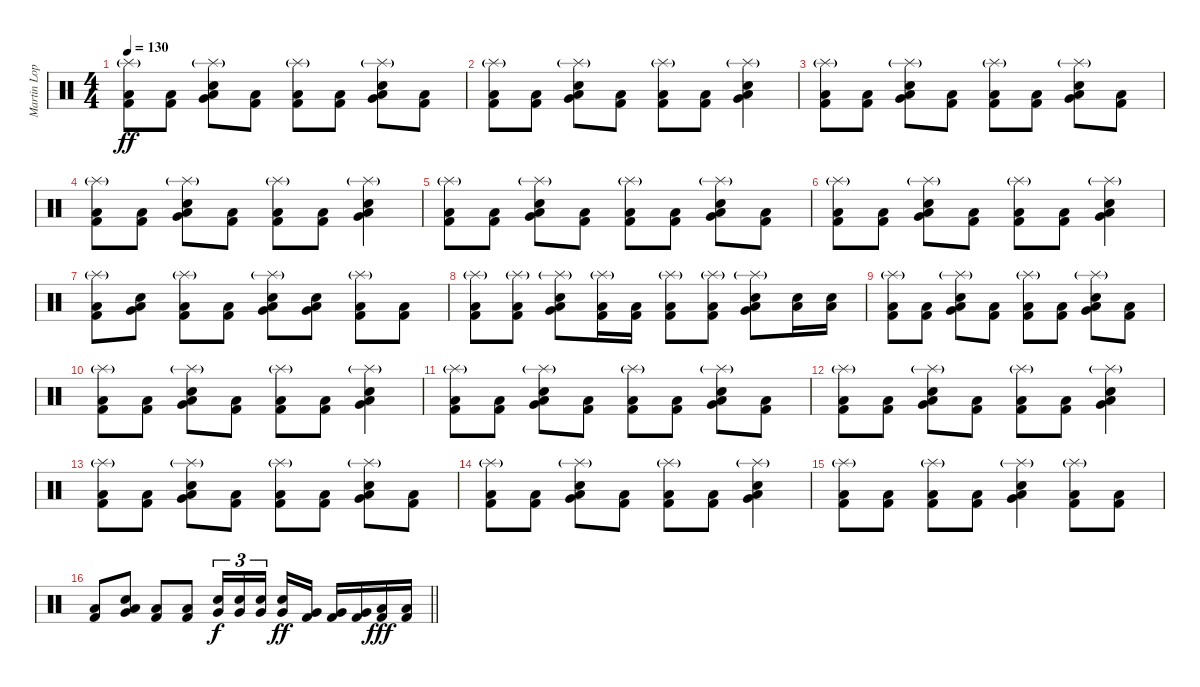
\track ("Martin Lopez" "Martin Lop") {instrument percussion}
\staff {score}
\articulation defaults
\ts (4 4)
\tempo 130
\clef neutral
\ks c
("Splash (hit)"{g} "Kick (hit) 2" "Low Floor Tom (hit)").8{dy ff} ("Kick (hit) 2" "Low Floor Tom (hit)").8 ("Splash (hit)"{g} "Very Low Tom (hit)" "Snare (hit) 2" "Low Floor Tom (hit)").8 ("Kick (hit) 2" "Low Floor Tom (hit)").8 ("Splash (hit)"{g} "Kick (hit) 2" "Low Floor Tom (hit)").8 ("Kick (hit) 2" "Low Floor Tom (hit)").8 ("Splash (hit)"{g} "Very Low Tom (hit)" "Snare (hit) 2" "Low Floor Tom (hit)").8 ("Kick (hit) 2" "Low Floor Tom (hit)").8 |
("Splash (hit)"{g} "Kick (hit) 2" "Low Floor Tom (hit)").8 ("Kick (hit) 2" "Low Floor Tom (hit)").8 ("Splash (hit)"{g} "Very Low Tom (hit)" "Snare (hit) 2" "Low Floor Tom (hit)").8 ("Kick (hit) 2" "Low Floor Tom (hit)").8 ("Splash (hit)"{g} "Kick (hit) 2" "Low Floor Tom (hit)").8 ("Kick (hit) 2" "Low Floor Tom (hit)").8 ("Splash (hit)"{g} "Very Low Tom (hit)" "Snare (hit) 2" "Low Floor Tom (hit)").4 |
("Splash (hit)"{g} "Kick (hit) 2" "Low Floor Tom (hit)").8 ("Kick (hit) 2" "Low Floor Tom (hit)").8 ("Splash (hit)"{g} "Very Low Tom (hit)" "Snare (hit) 2" "Low Floor Tom (hit)").8 ("Kick (hit) 2" "Low Floor Tom (hit)").8 ("Splash (hit)"{g} "Kick (hit) 2" "Low Floor Tom (hit)").8 ("Kick (hit) 2" "Low Floor Tom (hit)").8 ("Splash (hit)"{g} "Very Low Tom (hit)" "Snare (hit) 2" "Low Floor Tom (hit)").8 ("Kick (hit) 2" "Low Floor Tom (hit)").8 |
("Splash (hit)"{g} "Kick (hit) 2" "Low Floor Tom (hit)").8 ("Kick (hit) 2" "Low Floor Tom (hit)").8 ("Splash (hit)"{g} "Very Low Tom (hit)" "Snare (hit) 2" "Low Floor Tom (hit)").8 ("Kick (hit) 2" "Low Floor Tom (hit)").8 ("Splash (hit)"{g} "Kick (hit) 2" "Low Floor Tom (hit)").8 ("Kick (hit) 2" "Low Floor Tom (hit)").8 ("Splash (hit)"{g} "Very Low Tom (hit)" "Snare (hit) 2" "Low Floor Tom (hit)").4 |
("Splash (hit)"{g} "Kick (hit) 2" "Low Floor Tom (hit)").8 ("Kick (hit) 2" "Low Floor Tom (hit)").8 ("Splash (hit)"{g} "Very Low Tom (hit)" "Snare (hit) 2" "Low Floor Tom (hit)").8 ("Kick (hit) 2" "Low Floor Tom (hit)").8 ("Splash (hit)"{g} "Kick (hit) 2" "Low Floor Tom (hit)").8 ("Kick (hit) 2" "Low Floor Tom (hit)").8 ("Splash (hit)"{g} "Very Low Tom (hit)" "Snare (hit) 2" "Low Floor Tom (hit)").8 ("Kick (hit) 2" "Low Floor Tom (hit)").8 |
("Splash (hit)"{g} "Kick (hit) 2" "Low Floor Tom (hit)").8 ("Kick (hit) 2" "Low Floor Tom (hit)").8 ("Splash (hit)"{g} "Very Low Tom (hit)" "Snare (hit) 2" "Low Floor Tom (hit)").8 ("Kick (hit) 2" "Low Floor Tom (hit)").8 ("Splash (hit)"{g} "Kick (hit) 2" "Low Floor Tom (hit)").8 ("Kick (hit) 2" "Low Floor Tom (hit)").8 ("Splash (hit)"{g} "Very Low Tom (hit)" "Snare (hit) 2" "Low Floor Tom (hit)").4 |
("Splash (hit)"{g} "Kick (hit) 2" "Low Floor Tom (hit)").8 ("Very Low Tom (hit)" "Snare (hit) 2" "Low Floor Tom (hit)").8 ("Splash (hit)"{g} "Kick (hit) 2" "Low Floor Tom (hit)").8 ("Kick (hit) 2" "Low Floor Tom (hit)").8 ("Splash (hit)"{g} "Very Low Tom (hit)" "Snare (hit) 2" "Low Floor Tom (hit)").8 ("Very Low Tom (hit)" "Snare (hit) 2" "Low Floor Tom (hit)").8 ("Splash (hit)"{g} "Kick (hit) 2" "Low Floor Tom (hit)").8 ("Kick (hit) 2" "Low Floor Tom (hit)").8 |
("Splash (hit)"{g} "Kick (hit) 2" "Low Floor Tom (hit)").8 ("Splash (hit)"{g} "Kick (hit) 2" "Low Floor Tom (hit)").8 ("Splash (hit)"{g} "Very Low Tom (hit)" "Snare (hit) 2" "Low Floor Tom (hit)").8 ("Splash (hit)"{g} "Kick (hit) 2" "Low Floor Tom (hit)").16 ("Kick (hit) 2" "Low Floor Tom (hit)").16 ("Splash (hit)"{g} "Kick (hit) 2" "Low Floor Tom (hit)").8 ("Splash (hit)"{g} "Kick (hit) 2" "Low Floor Tom (hit)").8 ("Splash (hit)"{g} "Very Low Tom (hit)" "Snare (hit) 2" "Low Floor Tom (hit)").8 ("Snare (hit) 2" "Low Floor Tom (hit)").16 ("Snare (hit) 2" "Low Floor Tom (hit)").16 |
("Splash (hit)"{g} "Kick (hit) 2" "Low Floor Tom (hit)").8 ("Kick (hit) 2" "Low Floor Tom (hit)").8 ("Splash (hit)"{g} "Very Low Tom (hit)" "Snare (hit) 2" "Low Floor Tom (hit)").8 ("Kick (hit) 2" "Low Floor Tom (hit)").8 ("Splash (hit)"{g} "Kick (hit) 2" "Low Floor Tom (hit)").8 ("Kick (hit) 2" "Low Floor Tom (hit)").8 ("Splash (hit)"{g} "Very Low Tom (hit)" "Snare (hit) 2" "Low Floor Tom (hit)").8 ("Kick (hit) 2" "Low Floor Tom (hit)").8 |
("Splash (hit)"{g} "Kick (hit) 2" "Low Floor Tom (hit)").8 ("Kick (hit) 2" "Low Floor Tom (hit)").8 ("Splash (hit)"{g} "Very Low Tom (hit)" "Snare (hit) 2" "Low Floor Tom (hit)").8 ("Kick (hit) 2" "Low Floor Tom (hit)").8 ("Splash (hit)"{g} "Kick (hit) 2" "Low Floor Tom (hit)").8 ("Kick (hit) 2" "Low Floor Tom (hit)").8 ("Splash (hit)"{g} "Very Low Tom (hit)" "Snare (hit) 2" "Low Floor Tom (hit)").4 |
("Splash (hit)"{g} "Kick (hit) 2" "Low Floor Tom (hit)").8 ("Kick (hit) 2" "Low Floor Tom (hit)").8 ("Splash (hit)"{g} "Very Low Tom (hit)" "Snare (hit) 2" "Low Floor Tom (hit)").8 ("Kick (hit) 2" "Low Floor Tom (hit)").8 ("Splash (hit)"{g} "Kick (hit) 2" "Low Floor Tom (hit)").8 ("Kick (hit) 2" "Low Floor Tom (hit)").8 ("Splash (hit)"{g} "Very Low Tom (hit)" "Snare (hit) 2" "Low Floor Tom (hit)").8 ("Kick (hit) 2" "Low Floor Tom (hit)").8 |
("Splash (hit)"{g} "Kick (hit) 2" "Low Floor Tom (hit)").8 ("Kick (hit) 2" "Low Floor Tom (hit)").8 ("Splash (hit)"{g} "Very Low Tom (hit)" "Snare (hit) 2" "Low Floor Tom (hit)").8 ("Kick (hit) 2" "Low Floor Tom (hit)").8 ("Splash (hit)"{g} "Kick (hit) 2" "Low Floor Tom (hit)").8 ("Kick (hit) 2" "Low Floor Tom (hit)").8 ("Splash (hit)"{g} "Very Low Tom (hit)" "Snare (hit) 2" "Low Floor Tom (hit)").4 |
("Splash (hit)"{g} "Kick (hit) 2" "Low Floor Tom (hit)").8 ("Kick (hit) 2" "Low Floor Tom (hit)").8 ("Splash (hit)"{g} "Very Low Tom (hit)" "Snare (hit) 2" "Low Floor Tom (hit)").8 ("Kick (hit) 2" "Low Floor Tom (hit)").8 ("Splash (hit)"{g} "Kick (hit) 2" "Low Floor Tom (hit)").8 ("Kick (hit) 2" "Low Floor Tom (hit)").8 ("Splash (hit)"{g} "Very Low Tom (hit)" "Snare (hit) 2" "Low Floor Tom (hit)").8 ("Kick (hit) 2" "Low Floor Tom (hit)").8 |
("Splash (hit)"{g} "Kick (hit) 2" "Low Floor Tom (hit)").8 ("Kick (hit) 2" "Low Floor Tom (hit)").8 ("Splash (hit)"{g} "Very Low Tom (hit)" "Snare (hit) 2" "Low Floor Tom (hit)").8 ("Kick (hit) 2" "Low Floor Tom (hit)").8 ("Splash (hit)"{g} "Kick (hit) 2" "Low Floor Tom (hit)").8 ("Kick (hit) 2" "Low Floor Tom (hit)").8 ("Splash (hit)"{g} "Very Low Tom (hit)" "Snare (hit) 2" "Low Floor Tom (hit)").4 |
("Splash (hit)"{g} "Kick (hit) 2" "Low Floor Tom (hit)").8 ("Kick (hit) 2" "Low Floor Tom (hit)").8 ("Splash (hit)"{g} "Kick (hit) 2" "Low Floor Tom (hit)").8 ("Kick (hit) 2" "Low Floor Tom (hit)").8 ("Splash (hit)"{g} "Very Low Tom (hit)" "Snare (hit) 2" "Low Floor Tom (hit)").4 ("Splash (hit)"{g} "Kick (hit) 2" "Low Floor Tom (hit)").8 ("Kick (hit) 2" "Low Floor Tom (hit)").8 |
\barLineRight lightlight
("Kick (hit) 2" "Low Floor Tom (hit)").8 ("Very Low Tom (hit)" "Snare (hit) 2" "Low Floor Tom (hit)").8 ("Kick (hit) 2" "Low Floor Tom (hit)").8 ("Kick (hit) 2" "Low Floor Tom (hit)").8 ("Very Low Tom (hit)" "Snare (hit) 2").16{tu (3 2) dy f} ("Very Low Tom (hit)" "Snare (hit) 2").16{tu (3 2)} ("Very Low Tom (hit)" "Snare (hit) 2").16{tu (3 2) beam splitsecondary} ("Very Low Tom (hit)" "Snare (hit) 2").16{dy ff} ("Very Low Tom (hit)" "Kick (hit) 2").16 ("Very Low Tom (hit)" "Kick (hit) 2").16 ("Very Low Tom (hit)" "Kick (hit) 2").16 ("Kick (hit) 2" "Low Floor Tom (hit)").16{dy fff} ("Kick (hit) 2" "Low Floor Tom (hit)").16
